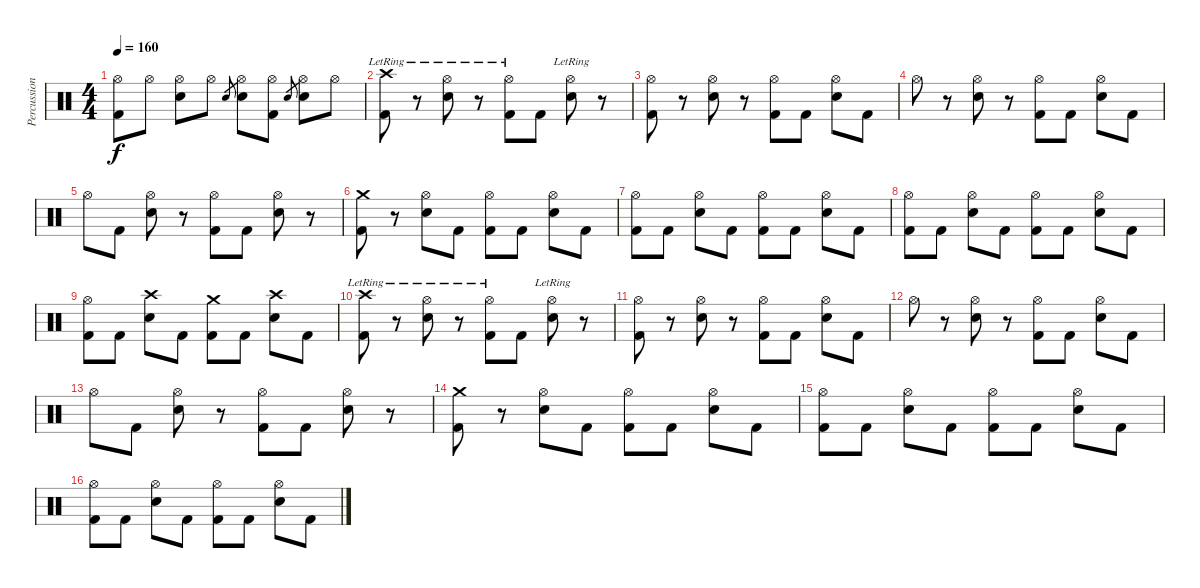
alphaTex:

\track ("Percussioni" "Percussion") {instrument percussion}
\staff {score}
\articulation defaults
\ts (4 4)
\tempo 160
\clef neutral
\ks c
("Hi-Hat (open)" "Kick (hit) 2").8{dy f} "Hi-Hat (open)".8 ("Hi-Hat (open)" "Electric Snare (hit)").8 "Hi-Hat (open)".8 "Electric Snare (hit)".8{gr} ("Hi-Hat (open)" "Electric Snare (hit)").8 ("Hi-Hat (open)" "Kick (hit) 2").8 "Electric Snare (hit)".8{gr} ("Hi-Hat (open)" "Electric Snare (hit)").8 "Hi-Hat (open)".8 |
("Crash high (hit)"{lr} "Kick (hit) 2").8 r.8 ("Hi-Hat (open)"{lr} "Electric Snare (hit)").8 r.8 ("Hi-Hat (open)"{lr} "Kick (hit) 2").8 "Kick (hit) 2".8 ("Hi-Hat (open)"{lr} "Electric Snare (hit)").8 r.8 |
("Hi-Hat (open)" "Kick (hit) 2").8 r.8 ("Hi-Hat (open)" "Electric Snare (hit)").8 r.8 ("Hi-Hat (open)" "Kick (hit) 2").8 "Kick (hit) 2".8 ("Hi-Hat (open)" "Electric Snare (hit)").8 "Kick (hit) 2".8 |
"Hi-Hat (open)".8 r.8 ("Hi-Hat (open)" "Electric Snare (hit)").8 r.8 ("Hi-Hat (open)" "Kick (hit) 2").8 "Kick (hit) 2".8 ("Hi-Hat (open)" "Electric Snare (hit)").8 "Kick (hit) 2".8 |
"Hi-Hat (open)".8 "Kick (hit) 2".8 ("Hi-Hat (open)" "Electric Snare (hit)").8 r.8 ("Hi-Hat (open)" "Kick (hit) 2").8 "Kick (hit) 2".8 ("Hi-Hat (open)" "Electric Snare (hit)").8 r.8 |
("Crash medium (hit)" "Kick (hit) 2").8 r.8 ("Hi-Hat (open)" "Electric Snare (hit)").8 "Kick (hit) 2".8 ("Hi-Hat (open)" "Kick (hit) 2").8 "Kick (hit) 2".8 ("Hi-Hat (open)" "Electric Snare (hit)").8 "Kick (hit) 2".8 |
("Hi-Hat (open)" "Kick (hit) 2").8 "Kick (hit) 2".8 ("Hi-Hat (open)" "Electric Snare (hit)").8 "Kick (hit) 2".8 ("Hi-Hat (open)" "Kick (hit) 2").8 "Kick (hit) 2".8 ("Hi-Hat (open)" "Electric Snare (hit)").8 "Kick (hit) 2".8 |
("Hi-Hat (open)" "Kick (hit) 2").8 "Kick (hit) 2".8 ("Hi-Hat (open)" "Electric Snare (hit)").8 "Kick (hit) 2".8 ("Hi-Hat (open)" "Kick (hit) 2").8 "Kick (hit) 2".8 ("Hi-Hat (open)" "Electric Snare (hit)").8 "Kick (hit) 2".8 |
("Hi-Hat (open)" "Kick (hit) 2").8 "Kick (hit) 2".8 ("Crash high (hit)" "Electric Snare (hit)").8 "Kick (hit) 2".8 ("Crash medium (hit)" "Kick (hit) 2").8 "Kick (hit) 2".8 ("Crash high (hit)" "Electric Snare (hit)").8 "Kick (hit) 2".8 |
("Crash high (hit)"{lr} "Kick (hit) 2").8 r.8 ("Hi-Hat (open)"{lr} "Electric Snare (hit)").8 r.8 ("Hi-Hat (open)"{lr} "Kick (hit) 2").8 "Kick (hit) 2".8 ("Hi-Hat (open)"{lr} "Electric Snare (hit)").8 r.8 |
("Hi-Hat (open)" "Kick (hit) 2").8 r.8 ("Hi-Hat (open)" "Electric Snare (hit)").8 r.8 ("Hi-Hat (open)" "Kick (hit) 2").8 "Kick (hit) 2".8 ("Hi-Hat (open)" "Electric Snare (hit)").8 "Kick (hit) 2".8 |
"Hi-Hat (open)".8 r.8 ("Hi-Hat (open)" "Electric Snare (hit)").8 r.8 ("Hi-Hat (open)" "Kick (hit) 2").8 "Kick (hit) 2".8 ("Hi-Hat (open)" "Electric Snare (hit)").8 "Kick (hit) 2".8 |
"Hi-Hat (open)".8 "Kick (hit) 2".8 ("Hi-Hat (open)" "Electric Snare (hit)").8 r.8 ("Hi-Hat (open)" "Kick (hit) 2").8 "Kick (hit) 2".8 ("Hi-Hat (open)" "Electric Snare (hit)").8 r.8 |
("Crash medium (hit)" "Kick (hit) 2").8 r.8 ("Hi-Hat (open)" "Electric Snare (hit)").8 "Kick (hit) 2".8 ("Hi-Hat (open)" "Kick (hit) 2").8 "Kick (hit) 2".8 ("Hi-Hat (open)" "Electric Snare (hit)").8 "Kick (hit) 2".8 |
("Hi-Hat (open)" "Kick (hit) 2").8 "Kick (hit) 2".8 ("Hi-Hat (open)" "Electric Snare (hit)").8 "Kick (hit) 2".8 ("Hi-Hat (open)" "Kick (hit) 2").8 "Kick (hit) 2".8 ("Hi-Hat (open)" "Electric Snare (hit)").8 "Kick (hit) 2".8 |
("Hi-Hat (open)" "Kick (hit) 2").8 "Kick (hit) 2".8 ("Hi-Hat (open)" "Electric Snare (hit)").8 "Kick (hit) 2".8 ("Hi-Hat (open)" "Kick (hit) 2").8 "Kick (hit) 2".8 ("Hi-Hat (open)" "Electric Snare (hit)").8 "Kick (hit) 2".8
